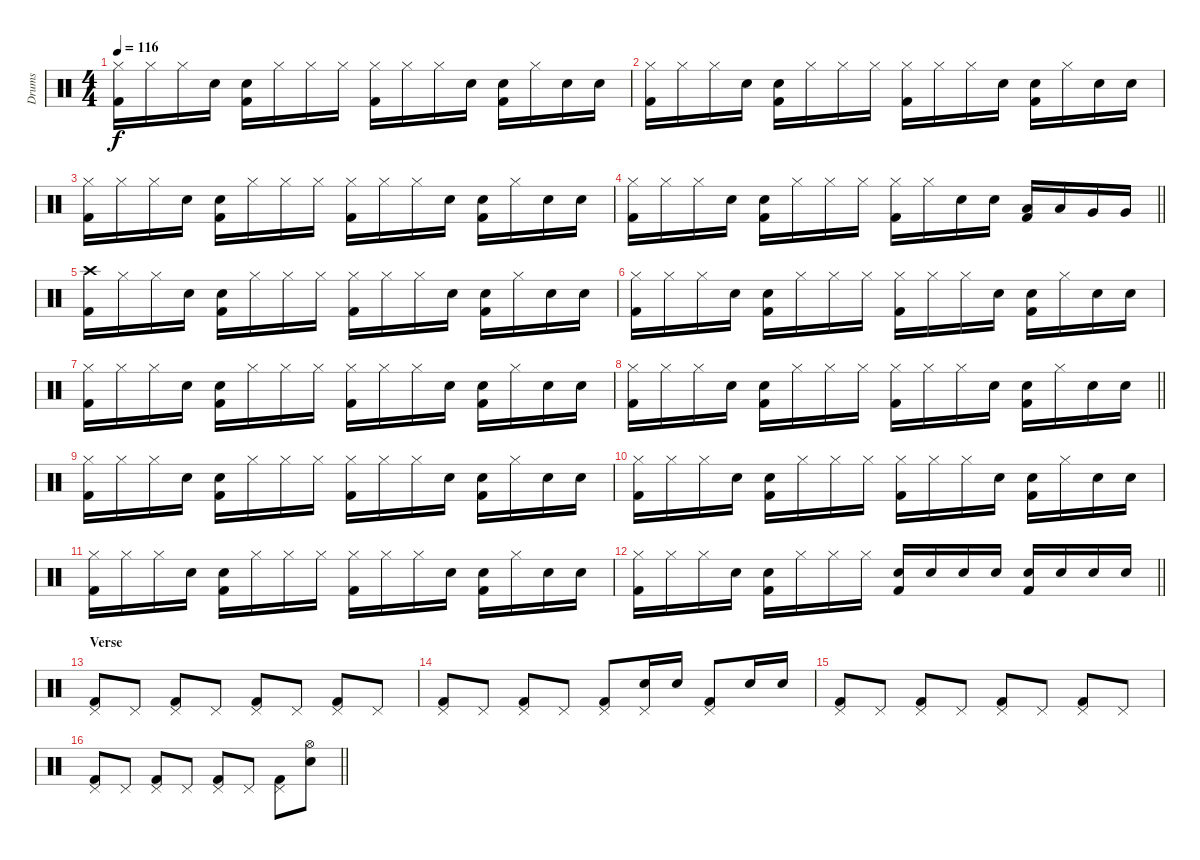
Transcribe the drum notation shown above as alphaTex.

\track ("Drums" "Drums") {instrument percussion}
\staff {score}
\articulation defaults
\ts (4 4)
\tempo 116
\clef neutral
\ks c
("Hi-Hat (closed)" "Kick (hit) 2").16{dy f} "Hi-Hat (closed)".16 "Hi-Hat (closed)".16 "Electric Snare (hit)".16 ("Electric Snare (hit)" "Kick (hit) 2").16 "Hi-Hat (closed)".16 "Hi-Hat (closed)".16 "Hi-Hat (closed)".16 ("Hi-Hat (closed)" "Kick (hit) 2").16 "Hi-Hat (closed)".16 "Hi-Hat (closed)".16 "Electric Snare (hit)".16 ("Electric Snare (hit)" "Kick (hit) 2").16 "Hi-Hat (closed)".16 "Electric Snare (hit)".16 "Electric Snare (hit)".16 |
("Hi-Hat (closed)" "Kick (hit) 2").16 "Hi-Hat (closed)".16 "Hi-Hat (closed)".16 "Electric Snare (hit)".16 ("Electric Snare (hit)" "Kick (hit) 2").16 "Hi-Hat (closed)".16 "Hi-Hat (closed)".16 "Hi-Hat (closed)".16 ("Hi-Hat (closed)" "Kick (hit) 2").16 "Hi-Hat (closed)".16 "Hi-Hat (closed)".16 "Electric Snare (hit)".16 ("Electric Snare (hit)" "Kick (hit) 2").16 "Hi-Hat (closed)".16 "Electric Snare (hit)".16 "Electric Snare (hit)".16 |
("Hi-Hat (closed)" "Kick (hit) 2").16 "Hi-Hat (closed)".16 "Hi-Hat (closed)".16 "Electric Snare (hit)".16 ("Electric Snare (hit)" "Kick (hit) 2").16 "Hi-Hat (closed)".16 "Hi-Hat (closed)".16 "Hi-Hat (closed)".16 ("Hi-Hat (closed)" "Kick (hit) 2").16 "Hi-Hat (closed)".16 "Hi-Hat (closed)".16 "Electric Snare (hit)".16 ("Electric Snare (hit)" "Kick (hit) 2").16 "Hi-Hat (closed)".16 "Electric Snare (hit)".16 "Electric Snare (hit)".16 |
\barLineRight lightlight
("Hi-Hat (closed)" "Kick (hit) 2").16 "Hi-Hat (closed)".16 "Hi-Hat (closed)".16 "Electric Snare (hit)".16 ("Electric Snare (hit)" "Kick (hit) 2").16 "Hi-Hat (closed)".16 "Hi-Hat (closed)".16 "Hi-Hat (closed)".16 ("Hi-Hat (closed)" "Kick (hit) 2").16 "Hi-Hat (closed)".16 "Electric Snare (hit)".16 "Electric Snare (hit)".16 ("Low Tom (hit)" "Kick (hit) 2").16 "Low Tom (hit)".16 "Very Low Tom (hit)".16 "Very Low Tom (hit)".16 |
("Crash high (hit)" "Kick (hit) 2").16 "Hi-Hat (closed)".16 "Hi-Hat (closed)".16 "Electric Snare (hit)".16 ("Electric Snare (hit)" "Kick (hit) 2").16 "Hi-Hat (closed)".16 "Hi-Hat (closed)".16 "Hi-Hat (closed)".16 ("Hi-Hat (closed)" "Kick (hit) 2").16 "Hi-Hat (closed)".16 "Hi-Hat (closed)".16 "Electric Snare (hit)".16 ("Electric Snare (hit)" "Kick (hit) 2").16 "Hi-Hat (closed)".16 "Electric Snare (hit)".16 "Electric Snare (hit)".16 |
("Hi-Hat (closed)" "Kick (hit) 2").16 "Hi-Hat (closed)".16 "Hi-Hat (closed)".16 "Electric Snare (hit)".16 ("Electric Snare (hit)" "Kick (hit) 2").16 "Hi-Hat (closed)".16 "Hi-Hat (closed)".16 "Hi-Hat (closed)".16 ("Hi-Hat (closed)" "Kick (hit) 2").16 "Hi-Hat (closed)".16 "Hi-Hat (closed)".16 "Electric Snare (hit)".16 ("Electric Snare (hit)" "Kick (hit) 2").16 "Hi-Hat (closed)".16 "Electric Snare (hit)".16 "Electric Snare (hit)".16 |
("Hi-Hat (closed)" "Kick (hit) 2").16 "Hi-Hat (closed)".16 "Hi-Hat (closed)".16 "Electric Snare (hit)".16 ("Electric Snare (hit)" "Kick (hit) 2").16 "Hi-Hat (closed)".16 "Hi-Hat (closed)".16 "Hi-Hat (closed)".16 ("Hi-Hat (closed)" "Kick (hit) 2").16 "Hi-Hat (closed)".16 "Hi-Hat (closed)".16 "Electric Snare (hit)".16 ("Electric Snare (hit)" "Kick (hit) 2").16 "Hi-Hat (closed)".16 "Electric Snare (hit)".16 "Electric Snare (hit)".16 |
\barLineRight lightlight
("Hi-Hat (closed)" "Kick (hit) 2").16 "Hi-Hat (closed)".16 "Hi-Hat (closed)".16 "Electric Snare (hit)".16 ("Electric Snare (hit)" "Kick (hit) 2").16 "Hi-Hat (closed)".16 "Hi-Hat (closed)".16 "Hi-Hat (closed)".16 ("Hi-Hat (closed)" "Kick (hit) 2").16 "Hi-Hat (closed)".16 "Hi-Hat (closed)".16 "Electric Snare (hit)".16 ("Electric Snare (hit)" "Kick (hit) 2").16 "Hi-Hat (closed)".16 "Electric Snare (hit)".16 "Electric Snare (hit)".16 |
("Hi-Hat (closed)" "Kick (hit) 2").16 "Hi-Hat (closed)".16 "Hi-Hat (closed)".16 "Electric Snare (hit)".16 ("Electric Snare (hit)" "Kick (hit) 2").16 "Hi-Hat (closed)".16 "Hi-Hat (closed)".16 "Hi-Hat (closed)".16 ("Hi-Hat (closed)" "Kick (hit) 2").16 "Hi-Hat (closed)".16 "Hi-Hat (closed)".16 "Electric Snare (hit)".16 ("Electric Snare (hit)" "Kick (hit) 2").16 "Hi-Hat (closed)".16 "Electric Snare (hit)".16 "Electric Snare (hit)".16 |
("Hi-Hat (closed)" "Kick (hit) 2").16 "Hi-Hat (closed)".16 "Hi-Hat (closed)".16 "Electric Snare (hit)".16 ("Electric Snare (hit)" "Kick (hit) 2").16 "Hi-Hat (closed)".16 "Hi-Hat (closed)".16 "Hi-Hat (closed)".16 ("Hi-Hat (closed)" "Kick (hit) 2").16 "Hi-Hat (closed)".16 "Hi-Hat (closed)".16 "Electric Snare (hit)".16 ("Electric Snare (hit)" "Kick (hit) 2").16 "Hi-Hat (closed)".16 "Electric Snare (hit)".16 "Electric Snare (hit)".16 |
("Hi-Hat (closed)" "Kick (hit) 2").16 "Hi-Hat (closed)".16 "Hi-Hat (closed)".16 "Electric Snare (hit)".16 ("Electric Snare (hit)" "Kick (hit) 2").16 "Hi-Hat (closed)".16 "Hi-Hat (closed)".16 "Hi-Hat (closed)".16 ("Hi-Hat (closed)" "Kick (hit) 2").16 "Hi-Hat (closed)".16 "Hi-Hat (closed)".16 "Electric Snare (hit)".16 ("Electric Snare (hit)" "Kick (hit) 2").16 "Hi-Hat (closed)".16 "Electric Snare (hit)".16 "Electric Snare (hit)".16 |
\barLineRight lightlight
("Hi-Hat (closed)" "Kick (hit) 2").16 "Hi-Hat (closed)".16 "Hi-Hat (closed)".16 "Electric Snare (hit)".16 ("Electric Snare (hit)" "Kick (hit) 2").16 "Hi-Hat (closed)".16 "Hi-Hat (closed)".16 "Hi-Hat (closed)".16 ("Electric Snare (hit)" "Kick (hit) 2").16 "Electric Snare (hit)".16 "Electric Snare (hit)".16 "Electric Snare (hit)".16 ("Electric Snare (hit)" "Kick (hit) 2").16 "Electric Snare (hit)".16 "Electric Snare (hit)".16 "Electric Snare (hit)".16 |
\section ("" "Verse")
("Pedal Hi-Hat (hit)" "Kick (hit) 2").8 "Pedal Hi-Hat (hit)".8 ("Pedal Hi-Hat (hit)" "Kick (hit) 2").8 "Pedal Hi-Hat (hit)".8 ("Pedal Hi-Hat (hit)" "Kick (hit) 2").8 "Pedal Hi-Hat (hit)".8 ("Pedal Hi-Hat (hit)" "Kick (hit) 2").8 "Pedal Hi-Hat (hit)".8 |
("Pedal Hi-Hat (hit)" "Kick (hit) 2").8 "Pedal Hi-Hat (hit)".8 ("Pedal Hi-Hat (hit)" "Kick (hit) 2").8 "Pedal Hi-Hat (hit)".8 ("Pedal Hi-Hat (hit)" "Kick (hit) 2").8 ("Pedal Hi-Hat (hit)" "Electric Snare (hit)").16 "Electric Snare (hit)".16 ("Pedal Hi-Hat (hit)" "Kick (hit) 2").8 "Electric Snare (hit)".16 "Electric Snare (hit)".16 |
("Pedal Hi-Hat (hit)" "Kick (hit) 2").8 "Pedal Hi-Hat (hit)".8 ("Pedal Hi-Hat (hit)" "Kick (hit) 2").8 "Pedal Hi-Hat (hit)".8 ("Pedal Hi-Hat (hit)" "Kick (hit) 2").8 "Pedal Hi-Hat (hit)".8 ("Pedal Hi-Hat (hit)" "Kick (hit) 2").8 "Pedal Hi-Hat (hit)".8 |
\barLineRight lightlight
("Pedal Hi-Hat (hit)" "Kick (hit) 2").8 "Pedal Hi-Hat (hit)".8 ("Pedal Hi-Hat (hit)" "Kick (hit) 2").8 "Pedal Hi-Hat (hit)".8 ("Pedal Hi-Hat (hit)" "Kick (hit) 2").8 "Pedal Hi-Hat (hit)".8 ("Pedal Hi-Hat (hit)" "Kick (hit) 2").8 ("Hi-Hat (open)" "Electric Snare (hit)").8
